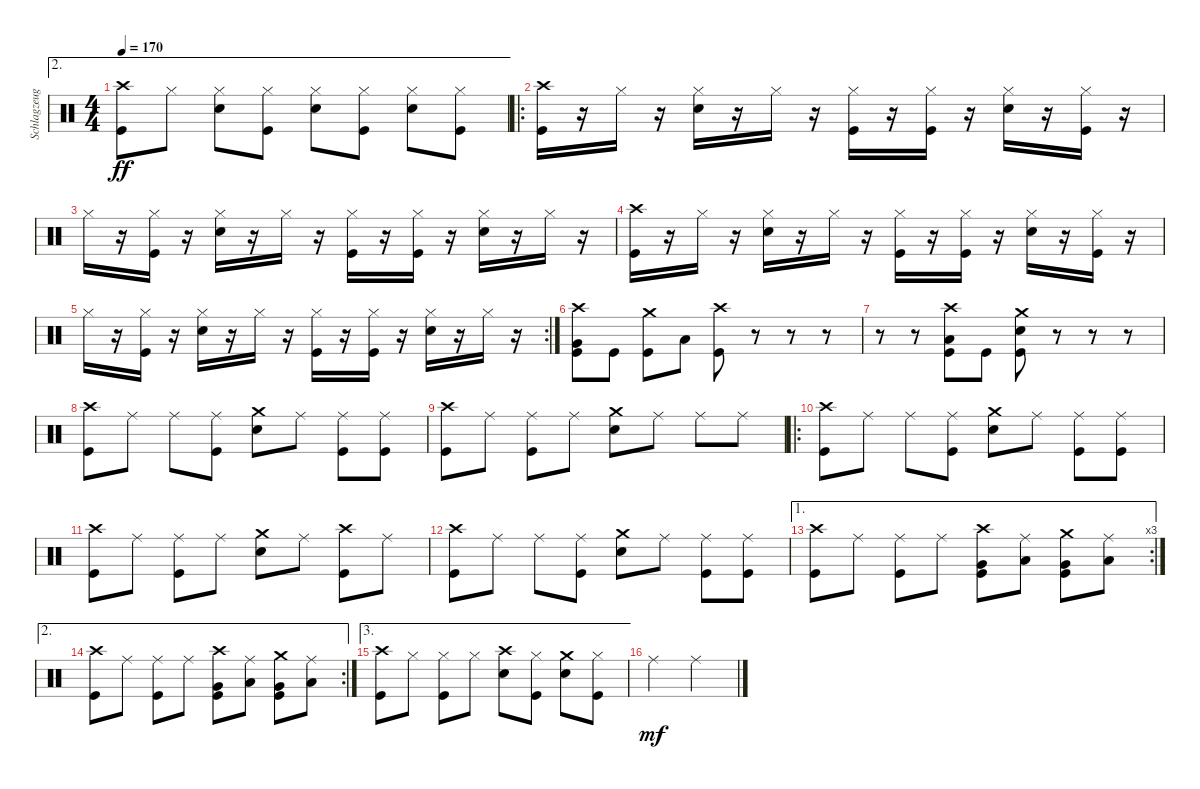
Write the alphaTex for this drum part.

\track ("Schlagzeug" "Schlagzeug") {instrument percussion}
\staff {score}
\articulation defaults
\ae 2
\ts (4 4)
\tempo 170
\clef neutral
\ks c
("Crash high (hit)" "Kick (hit)").8{dy ff} "Hi-Hat (closed)".8 ("Hi-Hat (closed)" "Snare (hit) 2").8 ("Hi-Hat (closed)" "Kick (hit)").8 ("Hi-Hat (closed)" "Snare (hit) 2").8 ("Hi-Hat (closed)" "Kick (hit)").8 ("Hi-Hat (closed)" "Snare (hit) 2").8 ("Hi-Hat (closed)" "Kick (hit)").8 |
\ro
("Crash high (hit)" "Kick (hit)").16 r.16 "Hi-Hat (closed)".16 r.16 ("Hi-Hat (closed)" "Snare (hit) 2").16 r.16 "Hi-Hat (closed)".16 r.16 ("Hi-Hat (closed)" "Kick (hit)").16 r.16 ("Hi-Hat (closed)" "Kick (hit)").16 r.16 ("Hi-Hat (closed)" "Snare (hit) 2").16 r.16 ("Hi-Hat (closed)" "Kick (hit)").16 r.16 |
"Hi-Hat (closed)".16 r.16 ("Hi-Hat (closed)" "Kick (hit)").16 r.16 ("Hi-Hat (closed)" "Snare (hit) 2").16 r.16 "Hi-Hat (closed)".16 r.16 ("Hi-Hat (closed)" "Kick (hit)").16 r.16 ("Hi-Hat (closed)" "Kick (hit)").16 r.16 ("Hi-Hat (closed)" "Snare (hit) 2").16 r.16 "Hi-Hat (closed)".16 r.16 |
("Crash high (hit)" "Kick (hit)").16 r.16 "Hi-Hat (closed)".16 r.16 ("Hi-Hat (closed)" "Snare (hit) 2").16 r.16 "Hi-Hat (closed)".16 r.16 ("Hi-Hat (closed)" "Kick (hit)").16 r.16 ("Hi-Hat (closed)" "Kick (hit)").16 r.16 ("Hi-Hat (closed)" "Snare (hit) 2").16 r.16 ("Hi-Hat (closed)" "Kick (hit)").16 r.16 |
\rc 2 "Hi-Hat (closed)".16
r.16 ("Hi-Hat (closed)" "Kick (hit)").16 r.16 ("Hi-Hat (closed)" "Snare (hit) 2").16 r.16 "Hi-Hat (closed)".16 r.16 ("Hi-Hat (closed)" "Kick (hit)").16 r.16 ("Hi-Hat (closed)" "Kick (hit)").16 r.16 ("Hi-Hat (closed)" "Snare (hit) 2").16 r.16 "Hi-Hat (closed)".16 r.16 |
("Crash high (hit)" "Very Low Tom (hit)" "Kick (hit)").8 "Kick (hit)".8 ("Crash medium (hit)" "Kick (hit)").8 "Low Floor Tom (hit)".8 ("Crash high (hit)" "Kick (hit)").8 r.8 r.8 r.8 |
r.8 r.8 ("Crash high (hit)" "Low Floor Tom (hit)" "Kick (hit)").8 "Kick (hit)".8 ("Crash medium (hit)" "Snare (hit) 2" "Kick (hit)").8 r.8 r.8 r.8 |
("Crash high (hit)" "Kick (hit)").8 "Ride (middle)".8 "Ride (middle)".8 ("Ride (middle)" "Kick (hit)").8 ("Crash medium (hit)" "Snare (hit) 2").8 "Ride (middle)".8 ("Ride (middle)" "Kick (hit)").8 ("Ride (middle)" "Kick (hit)").8 |
("Crash high (hit)" "Kick (hit)").8 "Ride (middle)".8 ("Ride (middle)" "Kick (hit)").8 "Ride (middle)".8 ("Crash medium (hit)" "Snare (hit) 2").8 "Ride (middle)".8 "Ride (middle)".8 "Ride (middle)".8 |
\ro
("Crash high (hit)" "Kick (hit)").8 "Ride (middle)".8 "Ride (middle)".8 ("Ride (middle)" "Kick (hit)").8 ("Crash medium (hit)" "Snare (hit) 2").8 "Ride (middle)".8 ("Ride (middle)" "Kick (hit)").8 ("Ride (middle)" "Kick (hit)").8 |
("Crash high (hit)" "Kick (hit)").8 "Ride (middle)".8 ("Ride (middle)" "Kick (hit)").8 "Ride (middle)".8 ("Crash medium (hit)" "Snare (hit) 2").8 "Ride (middle)".8 ("Crash high (hit)" "Kick (hit)").8 "Ride (middle)".8 |
("Crash high (hit)" "Kick (hit)").8 "Ride (middle)".8 "Ride (middle)".8 ("Ride (middle)" "Kick (hit)").8 ("Crash medium (hit)" "Snare (hit) 2").8 "Ride (middle)".8 ("Ride (middle)" "Kick (hit)").8 ("Ride (middle)" "Kick (hit)").8 |
\ae 1
\rc 3
("Crash high (hit)" "Kick (hit)").8 "Ride (middle)".8 ("Ride (middle)" "Kick (hit)").8 "Ride (middle)".8 ("Crash high (hit)" "Very Low Tom (hit)" "Kick (hit)").8 ("Ride (middle)" "Low Floor Tom (hit)").8 ("Crash medium (hit)" "Very Low Tom (hit)" "Kick (hit)").8 ("Ride (middle)" "Low Floor Tom (hit)").8 |
\ae 2
\rc 2
("Crash high (hit)" "Kick (hit)").8 "Ride (middle)".8 ("Ride (middle)" "Kick (hit)").8 "Ride (middle)".8 ("Crash high (hit)" "Very Low Tom (hit)" "Kick (hit)").8 ("Ride (middle)" "Low Floor Tom (hit)").8 ("Crash medium (hit)" "Very Low Tom (hit)" "Kick (hit)").8 ("Ride (middle)" "Low Floor Tom (hit)").8 |
\ae 3
("Crash high (hit)" "Kick (hit)").8 "Hi-Hat (closed)".8 ("Hi-Hat (closed)" "Kick (hit)").8 "Hi-Hat (closed)".8 ("Crash high (hit)" "Snare (hit) 2").8 ("Hi-Hat (closed)" "Kick (hit)").8 ("Crash medium (hit)" "Snare (hit) 2").8 ("Hi-Hat (closed)" "Kick (hit)").8 |
"Ride (middle)".2{dy mf} "Ride (middle)".2
